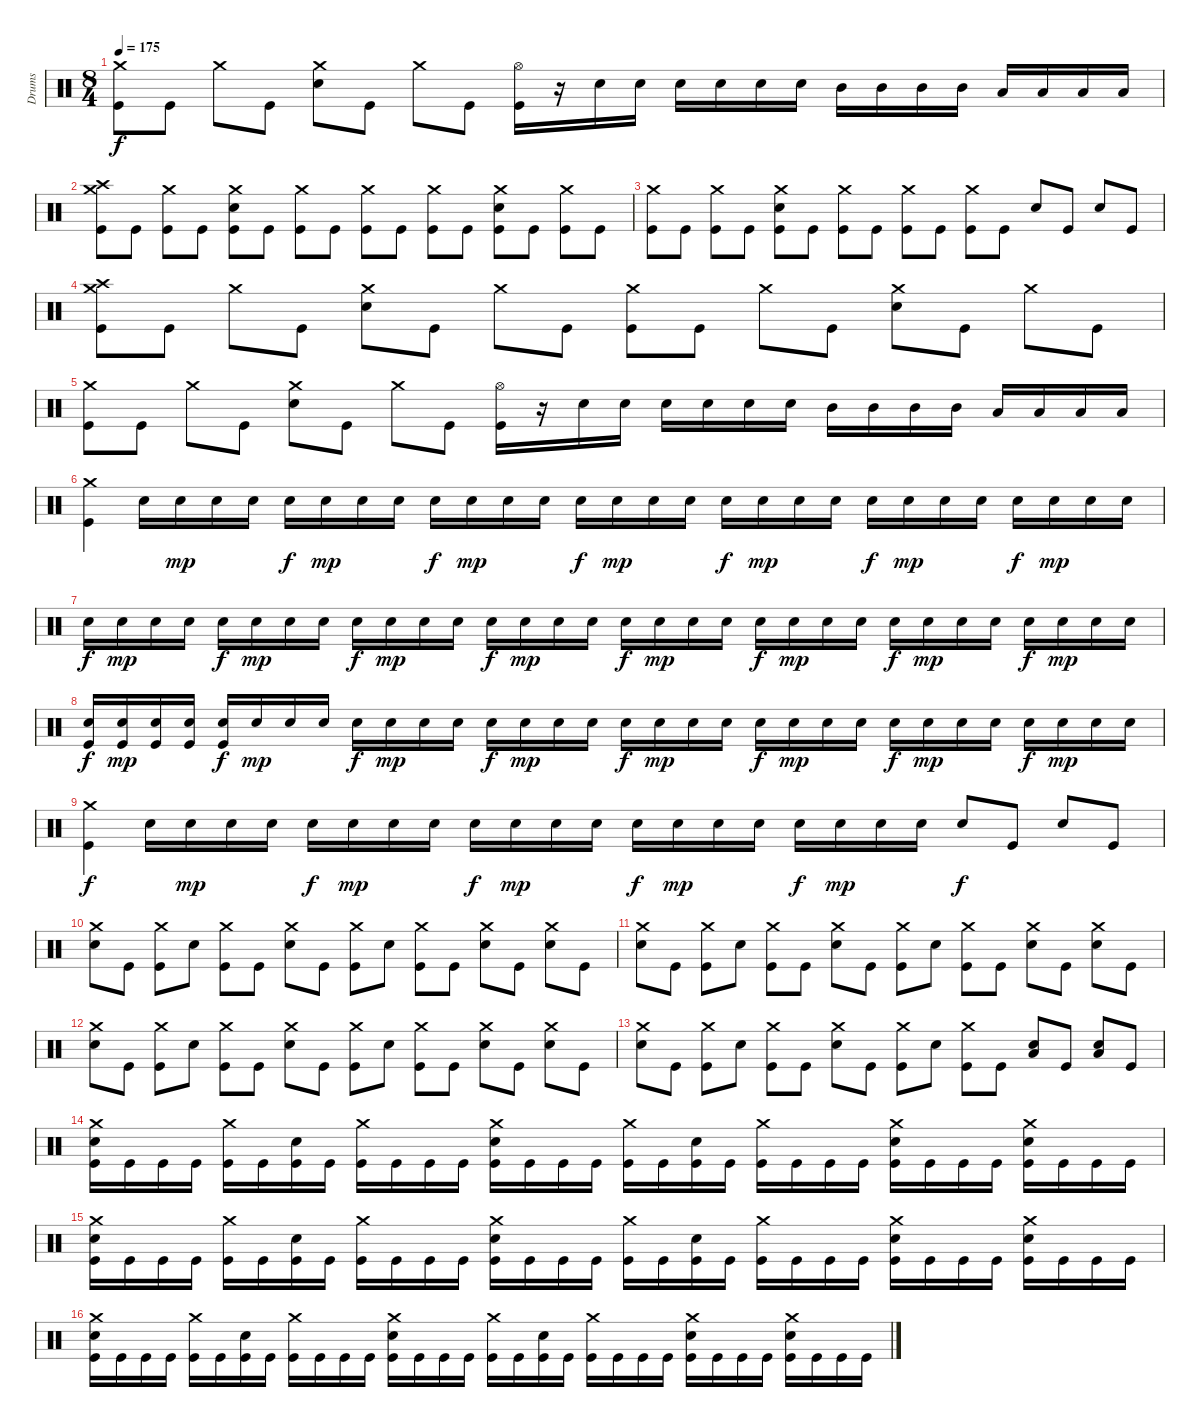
\track ("Drums" "Drums") {instrument percussion}
\staff {score}
\articulation defaults
\ts (8 4)
\tempo 175
\clef neutral
\ks c
("Crash medium (hit)" "Kick (hit)").8{dy f} "Kick (hit)".8 "Crash medium (hit)".8 "Kick (hit)".8 ("Crash medium (hit)" "Snare (hit) 2").8 "Kick (hit)".8 "Crash medium (hit)".8 "Kick (hit)".8 ("Hi-Hat (open)" "Kick (hit)").16 r.16 "Snare (hit) 2".16 "Snare (hit) 2".16 "Snare (hit) 2".16 "Snare (hit) 2".16 "Snare (hit) 2".16 "Snare (hit) 2".16 "Mid Tom (hit)".16 "Mid Tom (hit)".16 "Mid Tom (hit)".16 "Mid Tom (hit)".16 "Low Floor Tom (hit)".16 "Low Floor Tom (hit)".16 "Low Floor Tom (hit)".16 "Low Floor Tom (hit)".16 |
("Crash high (hit)" "Crash medium (hit)" "Kick (hit)").8 "Kick (hit)".8 ("Crash medium (hit)" "Kick (hit)").8 "Kick (hit)".8 ("Crash medium (hit)" "Snare (hit) 2" "Kick (hit)").8 "Kick (hit)".8 ("Crash medium (hit)" "Kick (hit)").8 "Kick (hit)".8 ("Crash medium (hit)" "Kick (hit)").8 "Kick (hit)".8 ("Crash medium (hit)" "Kick (hit)").8 "Kick (hit)".8 ("Crash medium (hit)" "Snare (hit) 2" "Kick (hit)").8 "Kick (hit)".8 ("Crash medium (hit)" "Kick (hit)").8 "Kick (hit)".8 |
("Crash medium (hit)" "Kick (hit)").8 "Kick (hit)".8 ("Crash medium (hit)" "Kick (hit)").8 "Kick (hit)".8 ("Crash medium (hit)" "Snare (hit) 2" "Kick (hit)").8 "Kick (hit)".8 ("Crash medium (hit)" "Kick (hit)").8 "Kick (hit)".8 ("Crash medium (hit)" "Kick (hit)").8 "Kick (hit)".8 ("Crash medium (hit)" "Kick (hit)").8 "Kick (hit)".8 "Snare (hit) 2".8 "Kick (hit)".8 "Snare (hit) 2".8 "Kick (hit)".8 |
("Crash high (hit)" "Crash medium (hit)" "Kick (hit)").8 "Kick (hit)".8 "Crash medium (hit)".8 "Kick (hit)".8 ("Crash medium (hit)" "Snare (hit) 2").8 "Kick (hit)".8 "Crash medium (hit)".8 "Kick (hit)".8 ("Crash medium (hit)" "Kick (hit)").8 "Kick (hit)".8 "Crash medium (hit)".8 "Kick (hit)".8 ("Crash medium (hit)" "Snare (hit) 2").8 "Kick (hit)".8 "Crash medium (hit)".8 "Kick (hit)".8 |
("Crash medium (hit)" "Kick (hit)").8 "Kick (hit)".8 "Crash medium (hit)".8 "Kick (hit)".8 ("Crash medium (hit)" "Snare (hit) 2").8 "Kick (hit)".8 "Crash medium (hit)".8 "Kick (hit)".8 ("Hi-Hat (open)" "Kick (hit)").16 r.16 "Snare (hit) 2".16 "Snare (hit) 2".16 "Snare (hit) 2".16 "Snare (hit) 2".16 "Snare (hit) 2".16 "Snare (hit) 2".16 "Mid Tom (hit)".16 "Mid Tom (hit)".16 "Mid Tom (hit)".16 "Mid Tom (hit)".16 "Low Floor Tom (hit)".16 "Low Floor Tom (hit)".16 "Low Floor Tom (hit)".16 "Low Floor Tom (hit)".16 |
("Crash medium (hit)" "Kick (hit)").4 "Snare (hit) 2".16 "Snare (hit) 2".16{dy mp} "Snare (hit) 2".16 "Snare (hit) 2".16 "Snare (hit) 2".16{dy f} "Snare (hit) 2".16{dy mp} "Snare (hit) 2".16 "Snare (hit) 2".16 "Snare (hit) 2".16{dy f} "Snare (hit) 2".16{dy mp} "Snare (hit) 2".16 "Snare (hit) 2".16 "Snare (hit) 2".16{dy f} "Snare (hit) 2".16{dy mp} "Snare (hit) 2".16 "Snare (hit) 2".16 "Snare (hit) 2".16{dy f} "Snare (hit) 2".16{dy mp} "Snare (hit) 2".16 "Snare (hit) 2".16 "Snare (hit) 2".16{dy f} "Snare (hit) 2".16{dy mp} "Snare (hit) 2".16 "Snare (hit) 2".16 "Snare (hit) 2".16{dy f} "Snare (hit) 2".16{dy mp} "Snare (hit) 2".16 "Snare (hit) 2".16 |
"Snare (hit) 2".16{dy f} "Snare (hit) 2".16{dy mp} "Snare (hit) 2".16 "Snare (hit) 2".16 "Snare (hit) 2".16{dy f} "Snare (hit) 2".16{dy mp} "Snare (hit) 2".16 "Snare (hit) 2".16 "Snare (hit) 2".16{dy f} "Snare (hit) 2".16{dy mp} "Snare (hit) 2".16 "Snare (hit) 2".16 "Snare (hit) 2".16{dy f} "Snare (hit) 2".16{dy mp} "Snare (hit) 2".16 "Snare (hit) 2".16 "Snare (hit) 2".16{dy f} "Snare (hit) 2".16{dy mp} "Snare (hit) 2".16 "Snare (hit) 2".16 "Snare (hit) 2".16{dy f} "Snare (hit) 2".16{dy mp} "Snare (hit) 2".16 "Snare (hit) 2".16 "Snare (hit) 2".16{dy f} "Snare (hit) 2".16{dy mp} "Snare (hit) 2".16 "Snare (hit) 2".16 "Snare (hit) 2".16{dy f} "Snare (hit) 2".16{dy mp} "Snare (hit) 2".16 "Snare (hit) 2".16 |
("Snare (hit) 2" "Kick (hit)").16{dy f} ("Snare (hit) 2" "Kick (hit)").16{dy mp} ("Snare (hit) 2" "Kick (hit)").16 ("Snare (hit) 2" "Kick (hit)").16 ("Snare (hit) 2" "Kick (hit)").16{dy f} "Snare (hit) 2".16{dy mp} "Snare (hit) 2".16 "Snare (hit) 2".16 "Snare (hit) 2".16{dy f} "Snare (hit) 2".16{dy mp} "Snare (hit) 2".16 "Snare (hit) 2".16 "Snare (hit) 2".16{dy f} "Snare (hit) 2".16{dy mp} "Snare (hit) 2".16 "Snare (hit) 2".16 "Snare (hit) 2".16{dy f} "Snare (hit) 2".16{dy mp} "Snare (hit) 2".16 "Snare (hit) 2".16 "Snare (hit) 2".16{dy f} "Snare (hit) 2".16{dy mp} "Snare (hit) 2".16 "Snare (hit) 2".16 "Snare (hit) 2".16{dy f} "Snare (hit) 2".16{dy mp} "Snare (hit) 2".16 "Snare (hit) 2".16 "Snare (hit) 2".16{dy f} "Snare (hit) 2".16{dy mp} "Snare (hit) 2".16 "Snare (hit) 2".16 |
("Crash medium (hit)" "Kick (hit)").4{dy f} "Snare (hit) 2".16 "Snare (hit) 2".16{dy mp} "Snare (hit) 2".16 "Snare (hit) 2".16 "Snare (hit) 2".16{dy f} "Snare (hit) 2".16{dy mp} "Snare (hit) 2".16 "Snare (hit) 2".16 "Snare (hit) 2".16{dy f} "Snare (hit) 2".16{dy mp} "Snare (hit) 2".16 "Snare (hit) 2".16 "Snare (hit) 2".16{dy f} "Snare (hit) 2".16{dy mp} "Snare (hit) 2".16 "Snare (hit) 2".16 "Snare (hit) 2".16{dy f} "Snare (hit) 2".16{dy mp} "Snare (hit) 2".16 "Snare (hit) 2".16 "Snare (hit) 2".8{dy f} "Kick (hit)".8 "Snare (hit) 2".8 "Kick (hit)".8 |
("Crash medium (hit)" "Snare (hit) 2").8 "Kick (hit)".8 ("Crash medium (hit)" "Kick (hit)").8 "Snare (hit) 2".8 ("Crash medium (hit)" "Kick (hit)").8 "Kick (hit)".8 ("Crash medium (hit)" "Snare (hit) 2").8 "Kick (hit)".8 ("Crash medium (hit)" "Kick (hit)").8 "Snare (hit) 2".8 ("Crash medium (hit)" "Kick (hit)").8 "Kick (hit)".8 ("Crash medium (hit)" "Snare (hit) 2").8 "Kick (hit)".8 ("Crash medium (hit)" "Snare (hit) 2").8 "Kick (hit)".8 |
("Crash medium (hit)" "Snare (hit) 2").8 "Kick (hit)".8 ("Crash medium (hit)" "Kick (hit)").8 "Snare (hit) 2".8 ("Crash medium (hit)" "Kick (hit)").8 "Kick (hit)".8 ("Crash medium (hit)" "Snare (hit) 2").8 "Kick (hit)".8 ("Crash medium (hit)" "Kick (hit)").8 "Snare (hit) 2".8 ("Crash medium (hit)" "Kick (hit)").8 "Kick (hit)".8 ("Crash medium (hit)" "Snare (hit) 2").8 "Kick (hit)".8 ("Crash medium (hit)" "Snare (hit) 2").8 "Kick (hit)".8 |
("Crash medium (hit)" "Snare (hit) 2").8 "Kick (hit)".8 ("Crash medium (hit)" "Kick (hit)").8 "Snare (hit) 2".8 ("Crash medium (hit)" "Kick (hit)").8 "Kick (hit)".8 ("Crash medium (hit)" "Snare (hit) 2").8 "Kick (hit)".8 ("Crash medium (hit)" "Kick (hit)").8 "Snare (hit) 2".8 ("Crash medium (hit)" "Kick (hit)").8 "Kick (hit)".8 ("Crash medium (hit)" "Snare (hit) 2").8 "Kick (hit)".8 ("Crash medium (hit)" "Snare (hit) 2").8 "Kick (hit)".8 |
("Crash medium (hit)" "Snare (hit) 2").8 "Kick (hit)".8 ("Crash medium (hit)" "Kick (hit)").8 "Snare (hit) 2".8 ("Crash medium (hit)" "Kick (hit)").8 "Kick (hit)".8 ("Crash medium (hit)" "Snare (hit) 2").8 "Kick (hit)".8 ("Crash medium (hit)" "Kick (hit)").8 "Snare (hit) 2".8 ("Crash medium (hit)" "Kick (hit)").8 "Kick (hit)".8 ("Low Floor Tom (hit)" "Snare (hit) 2").8 "Kick (hit)".8 ("Low Floor Tom (hit)" "Snare (hit) 2").8 "Kick (hit)".8 |
("Crash medium (hit)" "Snare (hit) 2" "Kick (hit)").16 "Kick (hit)".16 "Kick (hit)".16 "Kick (hit)".16 ("Crash medium (hit)" "Kick (hit)").16 "Kick (hit)".16 ("Snare (hit) 2" "Kick (hit)").16 "Kick (hit)".16 ("Crash medium (hit)" "Kick (hit)").16 "Kick (hit)".16 "Kick (hit)".16 "Kick (hit)".16 ("Crash medium (hit)" "Snare (hit) 2" "Kick (hit)").16 "Kick (hit)".16 "Kick (hit)".16 "Kick (hit)".16 ("Crash medium (hit)" "Kick (hit)").16 "Kick (hit)".16 ("Snare (hit) 2" "Kick (hit)").16 "Kick (hit)".16 ("Crash medium (hit)" "Kick (hit)").16 "Kick (hit)".16 "Kick (hit)".16 "Kick (hit)".16 ("Crash medium (hit)" "Snare (hit) 2" "Kick (hit)").16 "Kick (hit)".16 "Kick (hit)".16 "Kick (hit)".16 ("Crash medium (hit)" "Snare (hit) 2" "Kick (hit)").16 "Kick (hit)".16 "Kick (hit)".16 "Kick (hit)".16 |
("Crash medium (hit)" "Snare (hit) 2" "Kick (hit)").16 "Kick (hit)".16 "Kick (hit)".16 "Kick (hit)".16 ("Crash medium (hit)" "Kick (hit)").16 "Kick (hit)".16 ("Snare (hit) 2" "Kick (hit)").16 "Kick (hit)".16 ("Crash medium (hit)" "Kick (hit)").16 "Kick (hit)".16 "Kick (hit)".16 "Kick (hit)".16 ("Crash medium (hit)" "Snare (hit) 2" "Kick (hit)").16 "Kick (hit)".16 "Kick (hit)".16 "Kick (hit)".16 ("Crash medium (hit)" "Kick (hit)").16 "Kick (hit)".16 ("Snare (hit) 2" "Kick (hit)").16 "Kick (hit)".16 ("Crash medium (hit)" "Kick (hit)").16 "Kick (hit)".16 "Kick (hit)".16 "Kick (hit)".16 ("Crash medium (hit)" "Snare (hit) 2" "Kick (hit)").16 "Kick (hit)".16 "Kick (hit)".16 "Kick (hit)".16 ("Crash medium (hit)" "Snare (hit) 2" "Kick (hit)").16 "Kick (hit)".16 "Kick (hit)".16 "Kick (hit)".16 |
("Crash medium (hit)" "Snare (hit) 2" "Kick (hit)").16 "Kick (hit)".16 "Kick (hit)".16 "Kick (hit)".16 ("Crash medium (hit)" "Kick (hit)").16 "Kick (hit)".16 ("Snare (hit) 2" "Kick (hit)").16 "Kick (hit)".16 ("Crash medium (hit)" "Kick (hit)").16 "Kick (hit)".16 "Kick (hit)".16 "Kick (hit)".16 ("Crash medium (hit)" "Snare (hit) 2" "Kick (hit)").16 "Kick (hit)".16 "Kick (hit)".16 "Kick (hit)".16 ("Crash medium (hit)" "Kick (hit)").16 "Kick (hit)".16 ("Snare (hit) 2" "Kick (hit)").16 "Kick (hit)".16 ("Crash medium (hit)" "Kick (hit)").16 "Kick (hit)".16 "Kick (hit)".16 "Kick (hit)".16 ("Crash medium (hit)" "Snare (hit) 2" "Kick (hit)").16 "Kick (hit)".16 "Kick (hit)".16 "Kick (hit)".16 ("Crash medium (hit)" "Snare (hit) 2" "Kick (hit)").16 "Kick (hit)".16 "Kick (hit)".16 "Kick (hit)".16
